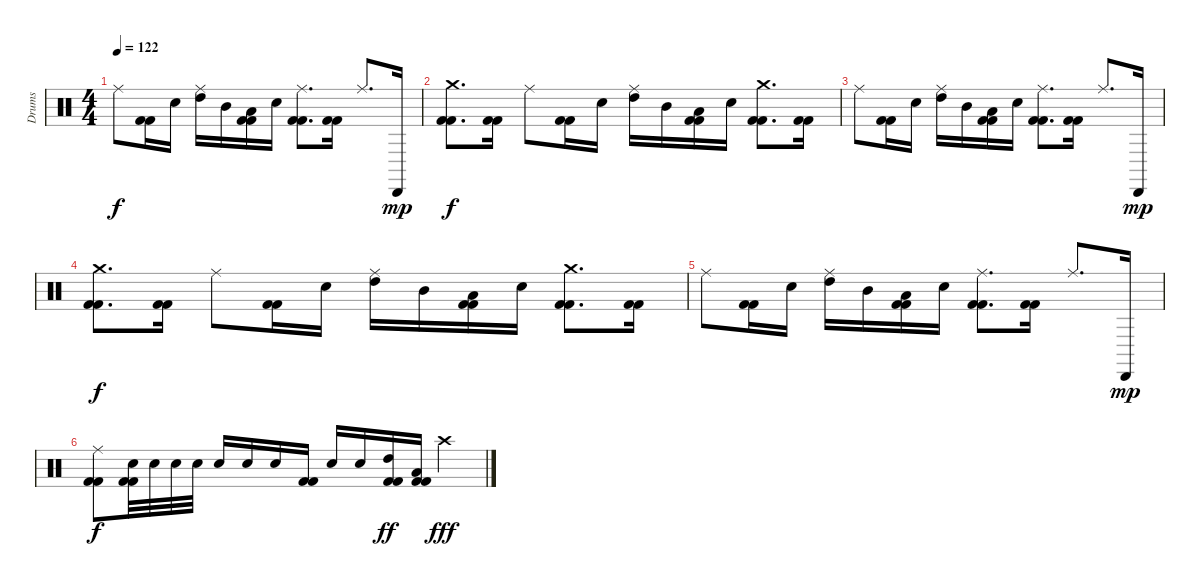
\track ("Drums" "Drums") {instrument percussion}
\staff {score}
\articulation defaults
\ts (4 4)
\tempo 122
\clef neutral
\ks c "Ride (middle)".8{dy f}
("Kick (hit) 2" "Kick (hit) 2").16 "Electric Snare (hit)".16 ("Ride (middle)" "High Tom (hit)").16 "Mid Tom (hit)".16 ("Low Tom (hit)" "Kick (hit) 2" "Kick (hit) 2").16 "Electric Snare (hit)".16 ("Ride (middle)" "Kick (hit) 2" "Kick (hit) 2").8{d} ("Kick (hit) 2" "Kick (hit) 2").16 "Ride (middle)".8{d} "Cabasa (hit)".16{dy mp} |
("Crash medium (hit)" "Kick (hit) 2" "Kick (hit) 2").8{d dy f} ("Kick (hit) 2" "Kick (hit) 2").16 "Ride (middle)".8 ("Kick (hit) 2" "Kick (hit) 2").16 "Electric Snare (hit)".16 ("Ride (middle)" "High Tom (hit)").16 "Mid Tom (hit)".16 ("Low Tom (hit)" "Kick (hit) 2" "Kick (hit) 2").16 "Electric Snare (hit)".16 ("Crash medium (hit)" "Kick (hit) 2" "Kick (hit) 2").8{d} ("Kick (hit) 2" "Kick (hit) 2").16 |
"Ride (middle)".8 ("Kick (hit) 2" "Kick (hit) 2").16 "Electric Snare (hit)".16 ("Ride (middle)" "High Tom (hit)").16 "Mid Tom (hit)".16 ("Low Tom (hit)" "Kick (hit) 2" "Kick (hit) 2").16 "Electric Snare (hit)".16 ("Ride (middle)" "Kick (hit) 2" "Kick (hit) 2").8{d} ("Kick (hit) 2" "Kick (hit) 2").16 "Ride (middle)".8{d} "Cabasa (hit)".16{dy mp} |
("Crash medium (hit)" "Kick (hit) 2" "Kick (hit) 2").8{d dy f} ("Kick (hit) 2" "Kick (hit) 2").16 "Ride (middle)".8 ("Kick (hit) 2" "Kick (hit) 2").16 "Electric Snare (hit)".16 ("Ride (middle)" "High Tom (hit)").16 "Mid Tom (hit)".16 ("Low Tom (hit)" "Kick (hit) 2" "Kick (hit) 2").16 "Electric Snare (hit)".16 ("Crash medium (hit)" "Kick (hit) 2" "Kick (hit) 2").8{d} ("Kick (hit) 2" "Kick (hit) 2").16 |
"Ride (middle)".8 ("Kick (hit) 2" "Kick (hit) 2").16 "Electric Snare (hit)".16 ("Ride (middle)" "High Tom (hit)").16 "Mid Tom (hit)".16 ("Low Tom (hit)" "Kick (hit) 2" "Kick (hit) 2").16 "Electric Snare (hit)".16 ("Ride (middle)" "Kick (hit) 2" "Kick (hit) 2").8{d} ("Kick (hit) 2" "Kick (hit) 2").16 "Ride (middle)".8{d} "Cabasa (hit)".16{dy mp} |
("Ride (middle)" "Kick (hit) 2" "Kick (hit) 2").8{dy f} ("Electric Snare (hit)" "Kick (hit) 2" "Kick (hit) 2").32 "Electric Snare (hit)".32 "Electric Snare (hit)".32 "Electric Snare (hit)".32 "Electric Snare (hit)".16 "Electric Snare (hit)".16 "Electric Snare (hit)".16 ("Kick (hit) 2" "Kick (hit) 2").16 "Electric Snare (hit)".16 "Electric Snare (hit)".16 ("High Tom (hit)" "Kick (hit) 2" "Kick (hit) 2").16{dy ff} ("Low Tom (hit)" "Kick (hit) 2" "Kick (hit) 2").16 "Crash high (hit)".4{dy fff}
